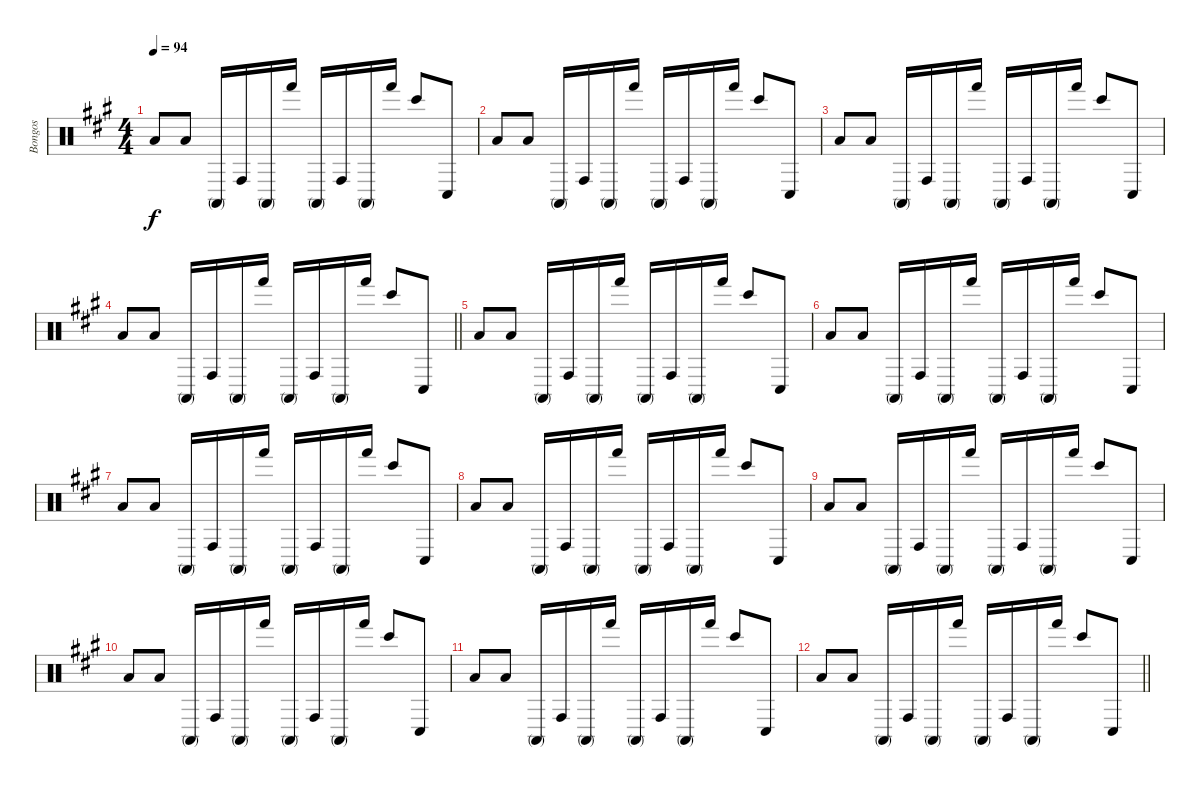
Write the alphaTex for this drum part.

\track ("Bongos" "Bongos") {instrument percussion}
\staff {score}
\articulation defaults
\ts (4 4)
\tempo 94
\clef neutral
\ks a "Low Floor Tom (hit)".8{dy f} "Low Floor Tom (hit)".8 "Conga high (mute)".16 "Conga high (hit)".16 "Conga high (mute)".16 "Hand (hit)".16 "Conga high (mute)".16 "Conga high (hit)".16 "Conga high (mute)".16 "Hand (hit)".16 "Bongo High (hit)".8 "Conga low (hit)".8
|
"Low Floor Tom (hit)".8 "Low Floor Tom (hit)".8 "Conga high (mute)".16 "Conga high (hit)".16 "Conga high (mute)".16 "Hand (hit)".16 "Conga high (mute)".16 "Conga high (hit)".16 "Conga high (mute)".16 "Hand (hit)".16 "Bongo High (hit)".8 "Conga low (hit)".8 |
"Low Floor Tom (hit)".8 "Low Floor Tom (hit)".8 "Conga high (mute)".16 "Conga high (hit)".16 "Conga high (mute)".16 "Hand (hit)".16 "Conga high (mute)".16 "Conga high (hit)".16 "Conga high (mute)".16 "Hand (hit)".16 "Bongo High (hit)".8 "Conga low (hit)".8 |
\barLineRight lightlight "Low Floor Tom (hit)".8 "Low Floor Tom (hit)".8 "Conga high (mute)".16 "Conga high (hit)".16 "Conga high (mute)".16 "Hand (hit)".16 "Conga high (mute)".16 "Conga high (hit)".16 "Conga high (mute)".16 "Hand (hit)".16 "Bongo High (hit)".8 "Conga low (hit)".8
|
"Low Floor Tom (hit)".8{volume 5} "Low Floor Tom (hit)".8 "Conga high (mute)".16 "Conga high (hit)".16 "Conga high (mute)".16 "Hand (hit)".16 "Conga high (mute)".16 "Conga high (hit)".16 "Conga high (mute)".16 "Hand (hit)".16 "Bongo High (hit)".8 "Conga low (hit)".8 |
"Low Floor Tom (hit)".8 "Low Floor Tom (hit)".8 "Conga high (mute)".16 "Conga high (hit)".16 "Conga high (mute)".16 "Hand (hit)".16 "Conga high (mute)".16 "Conga high (hit)".16 "Conga high (mute)".16 "Hand (hit)".16 "Bongo High (hit)".8 "Conga low (hit)".8 |
"Low Floor Tom (hit)".8 "Low Floor Tom (hit)".8 "Conga high (mute)".16 "Conga high (hit)".16 "Conga high (mute)".16 "Hand (hit)".16 "Conga high (mute)".16 "Conga high (hit)".16 "Conga high (mute)".16 "Hand (hit)".16 "Bongo High (hit)".8 "Conga low (hit)".8 |
"Low Floor Tom (hit)".8 "Low Floor Tom (hit)".8 "Conga high (mute)".16 "Conga high (hit)".16 "Conga high (mute)".16 "Hand (hit)".16 "Conga high (mute)".16 "Conga high (hit)".16 "Conga high (mute)".16 "Hand (hit)".16 "Bongo High (hit)".8 "Conga low (hit)".8 |
"Low Floor Tom (hit)".8 "Low Floor Tom (hit)".8 "Conga high (mute)".16 "Conga high (hit)".16 "Conga high (mute)".16 "Hand (hit)".16 "Conga high (mute)".16 "Conga high (hit)".16 "Conga high (mute)".16 "Hand (hit)".16 "Bongo High (hit)".8 "Conga low (hit)".8 |
"Low Floor Tom (hit)".8 "Low Floor Tom (hit)".8 "Conga high (mute)".16 "Conga high (hit)".16 "Conga high (mute)".16 "Hand (hit)".16 "Conga high (mute)".16 "Conga high (hit)".16 "Conga high (mute)".16 "Hand (hit)".16 "Bongo High (hit)".8 "Conga low (hit)".8 |
"Low Floor Tom (hit)".8 "Low Floor Tom (hit)".8 "Conga high (mute)".16 "Conga high (hit)".16 "Conga high (mute)".16 "Hand (hit)".16 "Conga high (mute)".16 "Conga high (hit)".16 "Conga high (mute)".16 "Hand (hit)".16 "Bongo High (hit)".8 "Conga low (hit)".8 |
\barLineRight lightlight "Low Floor Tom (hit)".8 "Low Floor Tom (hit)".8 "Conga high (mute)".16 "Conga high (hit)".16 "Conga high (mute)".16 "Hand (hit)".16 "Conga high (mute)".16 "Conga high (hit)".16 "Conga high (mute)".16 "Hand (hit)".16 "Bongo High (hit)".8 "Conga low (hit)".8
